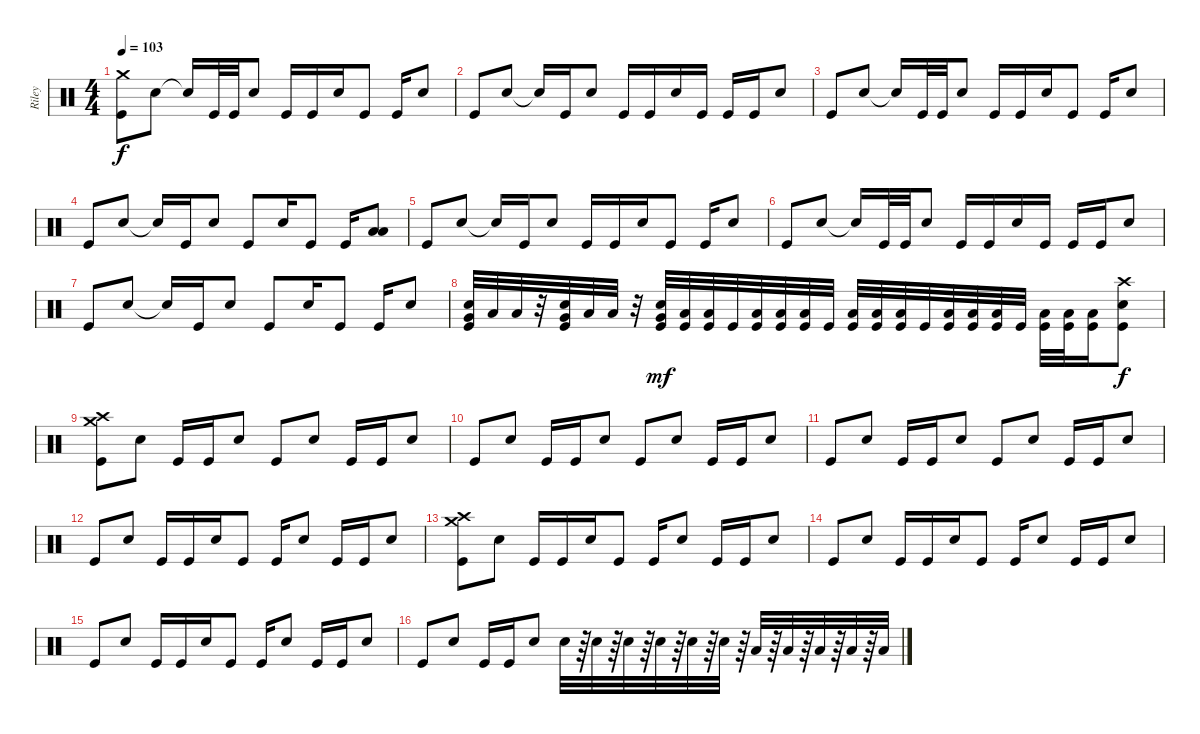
\track ("Riley" "Riley") {instrument percussion}
\staff {score}
\articulation defaults
\ts (4 4)
\tempo 103
\clef neutral
\ks c
("Crash medium (hit)" "Kick (hit)").8{dy f} "Electric Snare (hit)".8 "Snare (hit)"{t}.16 "Kick (hit)".32 "Kick (hit)".32 "Electric Snare (hit)".8 "Kick (hit)".16 "Kick (hit)".16 "Electric Snare (hit)".16 "Kick (hit)".8 "Kick (hit)".16 "Electric Snare (hit)".8 |
"Kick (hit)".8 "Electric Snare (hit)".8 "Snare (hit)"{t}.16 "Kick (hit)".16 "Electric Snare (hit)".8 "Kick (hit)".16 "Kick (hit)".16 "Electric Snare (hit)".16 "Kick (hit)".16 "Kick (hit)".16 "Kick (hit)".16 "Electric Snare (hit)".8 |
"Kick (hit)".8 "Electric Snare (hit)".8 "Snare (hit)"{t}.16 "Kick (hit)".32 "Kick (hit)".32 "Electric Snare (hit)".8 "Kick (hit)".16 "Kick (hit)".16 "Electric Snare (hit)".16 "Kick (hit)".8 "Kick (hit)".16 "Electric Snare (hit)".8 |
"Kick (hit)".8 "Electric Snare (hit)".8 "Snare (hit)"{t}.16 "Kick (hit)".16 "Electric Snare (hit)".8 "Kick (hit)".8 "Electric Snare (hit)".16 "Kick (hit)".8 "Kick (hit)".16 ("Low Floor Tom (hit)" "Low Floor Tom (hit)").8 |
"Kick (hit)".8 "Electric Snare (hit)".8 "Snare (hit)"{t}.16 "Kick (hit)".16 "Electric Snare (hit)".8 "Kick (hit)".16 "Kick (hit)".16 "Electric Snare (hit)".16 "Kick (hit)".8 "Kick (hit)".16 "Electric Snare (hit)".8 |
"Kick (hit)".8 "Electric Snare (hit)".8 "Snare (hit)"{t}.16 "Kick (hit)".32 "Kick (hit)".32 "Electric Snare (hit)".8 "Kick (hit)".16 "Kick (hit)".16 "Electric Snare (hit)".16 "Kick (hit)".16 "Kick (hit)".16 "Kick (hit)".16 "Electric Snare (hit)".8 |
"Kick (hit)".8 "Electric Snare (hit)".8 "Snare (hit)"{t}.16 "Kick (hit)".16 "Electric Snare (hit)".8 "Kick (hit)".8 "Electric Snare (hit)".16 "Kick (hit)".8 "Kick (hit)".16 "Electric Snare (hit)".8 |
("Electric Snare (hit)" "Very Low Tom (hit)" "Kick (hit)").32 "Low Floor Tom (hit)".32 "Low Floor Tom (hit)".32 r.32 ("Electric Snare (hit)" "Very Low Tom (hit)" "Kick (hit)").32 "Low Floor Tom (hit)".32 "Low Floor Tom (hit)".32 r.32 ("Electric Snare (hit)" "Very Low Tom (hit)" "Kick (hit)").32{dy mf} ("Low Floor Tom (hit)" "Kick (hit)").32 ("Low Floor Tom (hit)" "Kick (hit)").32 "Kick (hit)".32 ("Low Floor Tom (hit)" "Kick (hit)").32 ("Low Floor Tom (hit)" "Kick (hit)").32 ("Low Floor Tom (hit)" "Kick (hit)").32 "Kick (hit)".32 ("Low Floor Tom (hit)" "Kick (hit)").32 ("Low Floor Tom (hit)" "Kick (hit)").32 ("Low Floor Tom (hit)" "Kick (hit)").32 "Kick (hit)".32 ("Low Floor Tom (hit)" "Kick (hit)").32 ("Low Floor Tom (hit)" "Kick (hit)").32 ("Low Floor Tom (hit)" "Kick (hit)").32 "Kick (hit)".32 ("Low Floor Tom (hit)" "Kick (hit)").32 ("Low Floor Tom (hit)" "Kick (hit)").32 ("Low Floor Tom (hit)" "Kick (hit)").16 ("Crash high (hit)" "Electric Snare (hit)" "Kick (hit)").8{dy f} |
("Crash high (hit)" "Crash medium (hit)" "Kick (hit)").8 "Electric Snare (hit)".8 "Kick (hit)".16 "Kick (hit)".16 "Electric Snare (hit)".8 "Kick (hit)".8 "Electric Snare (hit)".8 "Kick (hit)".16 "Kick (hit)".16 "Electric Snare (hit)".8 |
"Kick (hit)".8 "Electric Snare (hit)".8 "Kick (hit)".16 "Kick (hit)".16 "Electric Snare (hit)".8 "Kick (hit)".8 "Electric Snare (hit)".8 "Kick (hit)".16 "Kick (hit)".16 "Electric Snare (hit)".8 |
"Kick (hit)".8 "Electric Snare (hit)".8 "Kick (hit)".16 "Kick (hit)".16 "Electric Snare (hit)".8 "Kick (hit)".8 "Electric Snare (hit)".8 "Kick (hit)".16 "Kick (hit)".16 "Electric Snare (hit)".8 |
"Kick (hit)".8 "Electric Snare (hit)".8 "Kick (hit)".16 "Kick (hit)".16 "Electric Snare (hit)".16 "Kick (hit)".8 "Kick (hit)".16 "Electric Snare (hit)".8 "Kick (hit)".16 "Kick (hit)".16 "Electric Snare (hit)".8 |
("Crash high (hit)" "Crash medium (hit)" "Kick (hit)").8 "Electric Snare (hit)".8 "Kick (hit)".16 "Kick (hit)".16 "Electric Snare (hit)".16 "Kick (hit)".8 "Kick (hit)".16 "Electric Snare (hit)".8 "Kick (hit)".16 "Kick (hit)".16 "Electric Snare (hit)".8 |
"Kick (hit)".8 "Electric Snare (hit)".8 "Kick (hit)".16 "Kick (hit)".16 "Electric Snare (hit)".16 "Kick (hit)".8 "Kick (hit)".16 "Electric Snare (hit)".8 "Kick (hit)".16 "Kick (hit)".16 "Electric Snare (hit)".8 |
"Kick (hit)".8 "Electric Snare (hit)".8 "Kick (hit)".16 "Kick (hit)".16 "Electric Snare (hit)".16 "Kick (hit)".8 "Kick (hit)".16 "Electric Snare (hit)".8 "Kick (hit)".16 "Kick (hit)".16 "Electric Snare (hit)".8 |
"Kick (hit)".8 "Electric Snare (hit)".8 "Kick (hit)".16 "Kick (hit)".16 "Electric Snare (hit)".8 "Electric Snare (hit)".32 r.64 "Electric Snare (hit)".32 r.64 "Electric Snare (hit)".32 r.64 "Electric Snare (hit)".32 r.64 "Electric Snare (hit)".32 r.64 "Electric Snare (hit)".32 r.64 "Low Tom (hit)".32 r.64 "Low Tom (hit)".32 r.64 "Low Tom (hit)".32 r.64 "Low Floor Tom (hit)".32 r.64 "Low Floor Tom (hit)".32
